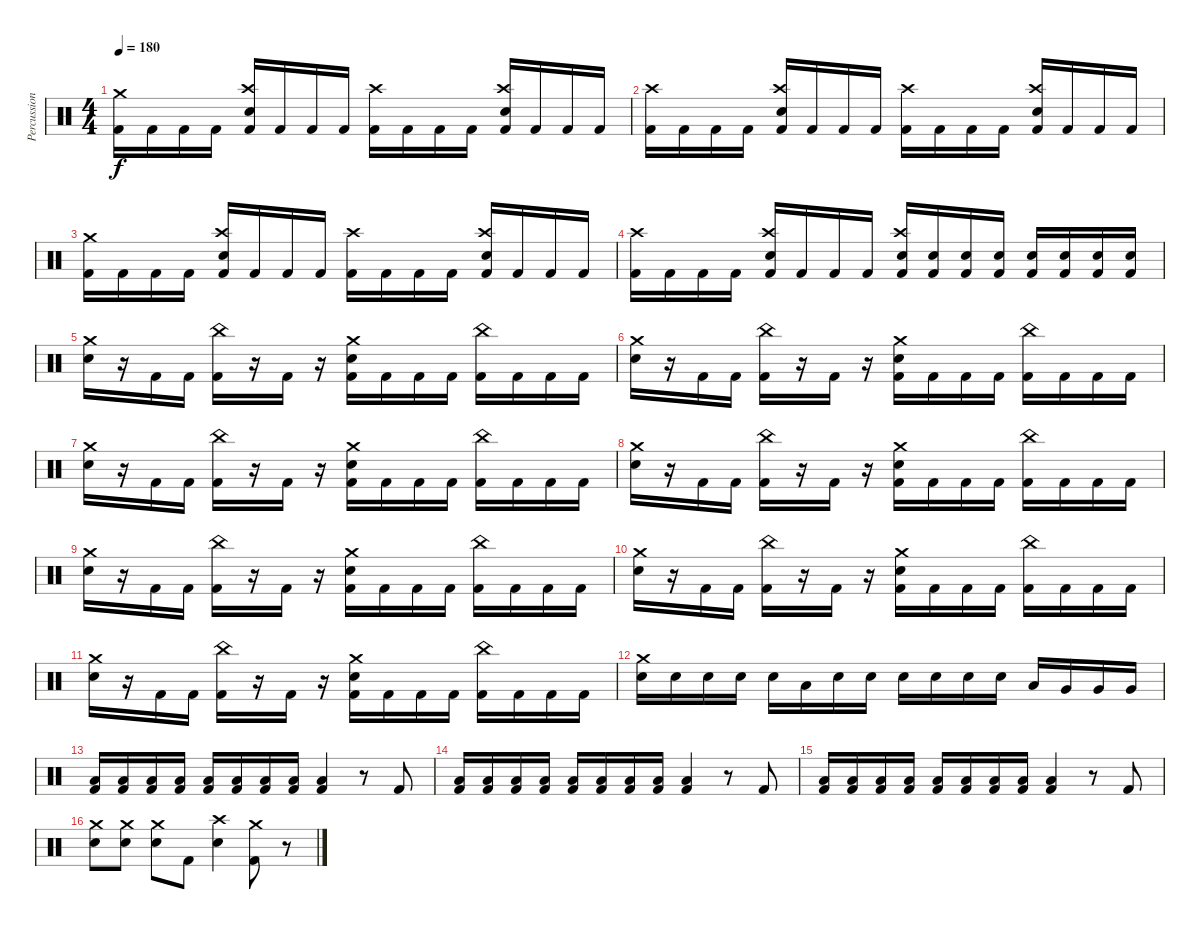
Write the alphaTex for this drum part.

\track ("Percussions" "Percussion") {instrument percussion}
\staff {score}
\articulation defaults
\ts (4 4)
\tempo 180
\clef neutral
\ks c
("Crash medium (hit)" "Kick (hit) 2").16{dy f} "Kick (hit) 2".16 "Kick (hit) 2".16 "Kick (hit) 2".16 ("Crash high (hit)" "Snare (hit) 2" "Kick (hit) 2").16 "Kick (hit) 2".16 "Kick (hit) 2".16 "Kick (hit) 2".16 ("Crash high (hit)" "Kick (hit) 2").16 "Kick (hit) 2".16 "Kick (hit) 2".16 "Kick (hit) 2".16 ("Crash high (hit)" "Snare (hit) 2" "Kick (hit) 2").16 "Kick (hit) 2".16 "Kick (hit) 2".16 "Kick (hit) 2".16 |
("Crash high (hit)" "Kick (hit) 2").16 "Kick (hit) 2".16 "Kick (hit) 2".16 "Kick (hit) 2".16 ("Crash high (hit)" "Snare (hit) 2" "Kick (hit) 2").16 "Kick (hit) 2".16 "Kick (hit) 2".16 "Kick (hit) 2".16 ("Crash high (hit)" "Kick (hit) 2").16 "Kick (hit) 2".16 "Kick (hit) 2".16 "Kick (hit) 2".16 ("Crash high (hit)" "Snare (hit) 2" "Kick (hit) 2").16 "Kick (hit) 2".16 "Kick (hit) 2".16 "Kick (hit) 2".16 |
("Crash medium (hit)" "Kick (hit) 2").16 "Kick (hit) 2".16 "Kick (hit) 2".16 "Kick (hit) 2".16 ("Crash high (hit)" "Snare (hit) 2" "Kick (hit) 2").16 "Kick (hit) 2".16 "Kick (hit) 2".16 "Kick (hit) 2".16 ("Crash high (hit)" "Kick (hit) 2").16 "Kick (hit) 2".16 "Kick (hit) 2".16 "Kick (hit) 2".16 ("Crash high (hit)" "Snare (hit) 2" "Kick (hit) 2").16 "Kick (hit) 2".16 "Kick (hit) 2".16 "Kick (hit) 2".16 |
("Crash high (hit)" "Kick (hit) 2").16 "Kick (hit) 2".16 "Kick (hit) 2".16 "Kick (hit) 2".16 ("Crash high (hit)" "Snare (hit) 2" "Kick (hit) 2").16 "Kick (hit) 2".16 "Kick (hit) 2".16 "Kick (hit) 2".16 ("Crash high (hit)" "Snare (hit) 2" "Kick (hit) 2").16 ("Snare (hit) 2" "Kick (hit) 2").16 ("Snare (hit) 2" "Kick (hit) 2").16 ("Snare (hit) 2" "Kick (hit) 2").16 ("Snare (hit) 2" "Kick (hit) 2").16 ("Snare (hit) 2" "Kick (hit) 2").16 ("Snare (hit) 2" "Kick (hit) 2").16 ("Snare (hit) 2" "Kick (hit) 2").16 |
("Crash medium (hit)" "Snare (hit) 2").16 r.16 "Kick (hit) 2".16 "Kick (hit) 2".16 ("China (hit)" "Kick (hit) 2").16 r.16 "Kick (hit) 2".16 r.16 ("Crash medium (hit)" "Snare (hit) 2" "Kick (hit) 2").16 "Kick (hit) 2".16 "Kick (hit) 2".16 "Kick (hit) 2".16 ("China (hit)" "Kick (hit) 2").16 "Kick (hit) 2".16 "Kick (hit) 2".16 "Kick (hit) 2".16 |
("Crash medium (hit)" "Snare (hit) 2").16 r.16 "Kick (hit) 2".16 "Kick (hit) 2".16 ("China (hit)" "Kick (hit) 2").16 r.16 "Kick (hit) 2".16 r.16 ("Crash medium (hit)" "Snare (hit) 2" "Kick (hit) 2").16 "Kick (hit) 2".16 "Kick (hit) 2".16 "Kick (hit) 2".16 ("China (hit)" "Kick (hit) 2").16 "Kick (hit) 2".16 "Kick (hit) 2".16 "Kick (hit) 2".16 |
("Crash medium (hit)" "Snare (hit) 2").16 r.16 "Kick (hit) 2".16 "Kick (hit) 2".16 ("China (hit)" "Kick (hit) 2").16 r.16 "Kick (hit) 2".16 r.16 ("Crash medium (hit)" "Snare (hit) 2" "Kick (hit) 2").16 "Kick (hit) 2".16 "Kick (hit) 2".16 "Kick (hit) 2".16 ("China (hit)" "Kick (hit) 2").16 "Kick (hit) 2".16 "Kick (hit) 2".16 "Kick (hit) 2".16 |
("Crash medium (hit)" "Snare (hit) 2").16 r.16 "Kick (hit) 2".16 "Kick (hit) 2".16 ("China (hit)" "Kick (hit) 2").16 r.16 "Kick (hit) 2".16 r.16 ("Crash medium (hit)" "Snare (hit) 2" "Kick (hit) 2").16 "Kick (hit) 2".16 "Kick (hit) 2".16 "Kick (hit) 2".16 ("China (hit)" "Kick (hit) 2").16 "Kick (hit) 2".16 "Kick (hit) 2".16 "Kick (hit) 2".16 |
("Crash medium (hit)" "Snare (hit) 2").16 r.16 "Kick (hit) 2".16 "Kick (hit) 2".16 ("China (hit)" "Kick (hit) 2").16 r.16 "Kick (hit) 2".16 r.16 ("Crash medium (hit)" "Snare (hit) 2" "Kick (hit) 2").16 "Kick (hit) 2".16 "Kick (hit) 2".16 "Kick (hit) 2".16 ("China (hit)" "Kick (hit) 2").16 "Kick (hit) 2".16 "Kick (hit) 2".16 "Kick (hit) 2".16 |
("Crash medium (hit)" "Snare (hit) 2").16 r.16 "Kick (hit) 2".16 "Kick (hit) 2".16 ("China (hit)" "Kick (hit) 2").16 r.16 "Kick (hit) 2".16 r.16 ("Crash medium (hit)" "Snare (hit) 2" "Kick (hit) 2").16 "Kick (hit) 2".16 "Kick (hit) 2".16 "Kick (hit) 2".16 ("China (hit)" "Kick (hit) 2").16 "Kick (hit) 2".16 "Kick (hit) 2".16 "Kick (hit) 2".16 |
("Crash medium (hit)" "Snare (hit) 2").16 r.16 "Kick (hit) 2".16 "Kick (hit) 2".16 ("China (hit)" "Kick (hit) 2").16 r.16 "Kick (hit) 2".16 r.16 ("Crash medium (hit)" "Snare (hit) 2" "Kick (hit) 2").16 "Kick (hit) 2".16 "Kick (hit) 2".16 "Kick (hit) 2".16 ("China (hit)" "Kick (hit) 2").16 "Kick (hit) 2".16 "Kick (hit) 2".16 "Kick (hit) 2".16 |
("Crash medium (hit)" "Snare (hit) 2").16 "Snare (hit) 2".16 "Snare (hit) 2".16 "Snare (hit) 2".16 "Snare (hit) 2".16 "Low Tom (hit)".16 "Snare (hit) 2".16 "Snare (hit) 2".16 "Snare (hit) 2".16 "Snare (hit) 2".16 "Snare (hit) 2".16 "Snare (hit) 2".16 "Low Tom (hit)".16 "Very Low Tom (hit)".16 "Very Low Tom (hit)".16 "Very Low Tom (hit)".16 |
("Low Floor Tom (hit)" "Kick (hit) 2").16 ("Low Floor Tom (hit)" "Kick (hit) 2").16 ("Low Floor Tom (hit)" "Kick (hit) 2").16 ("Low Floor Tom (hit)" "Kick (hit) 2").16 ("Low Floor Tom (hit)" "Kick (hit) 2").16 ("Low Floor Tom (hit)" "Kick (hit) 2").16 ("Low Floor Tom (hit)" "Kick (hit) 2").16 ("Low Floor Tom (hit)" "Kick (hit) 2").16 ("Low Floor Tom (hit)" "Kick (hit) 2").4 r.8 "Kick (hit) 2".8 |
("Low Floor Tom (hit)" "Kick (hit) 2").16 ("Low Floor Tom (hit)" "Kick (hit) 2").16 ("Low Floor Tom (hit)" "Kick (hit) 2").16 ("Low Floor Tom (hit)" "Kick (hit) 2").16 ("Low Floor Tom (hit)" "Kick (hit) 2").16 ("Low Floor Tom (hit)" "Kick (hit) 2").16 ("Low Floor Tom (hit)" "Kick (hit) 2").16 ("Low Floor Tom (hit)" "Kick (hit) 2").16 ("Low Floor Tom (hit)" "Kick (hit) 2").4 r.8 "Kick (hit) 2".8 |
("Low Floor Tom (hit)" "Kick (hit) 2").16 ("Low Floor Tom (hit)" "Kick (hit) 2").16 ("Low Floor Tom (hit)" "Kick (hit) 2").16 ("Low Floor Tom (hit)" "Kick (hit) 2").16 ("Low Floor Tom (hit)" "Kick (hit) 2").16 ("Low Floor Tom (hit)" "Kick (hit) 2").16 ("Low Floor Tom (hit)" "Kick (hit) 2").16 ("Low Floor Tom (hit)" "Kick (hit) 2").16 ("Low Floor Tom (hit)" "Kick (hit) 2").4 r.8 "Kick (hit) 2".8 |
("Crash medium (hit)" "Snare (hit) 2").8 ("Crash medium (hit)" "Snare (hit) 2").8 ("Crash medium (hit)" "Snare (hit) 2").8 "Kick (hit) 2".8 ("Crash high (hit)" "Snare (hit) 2").4 ("Crash medium (hit)" "Kick (hit) 2").8 r.8
